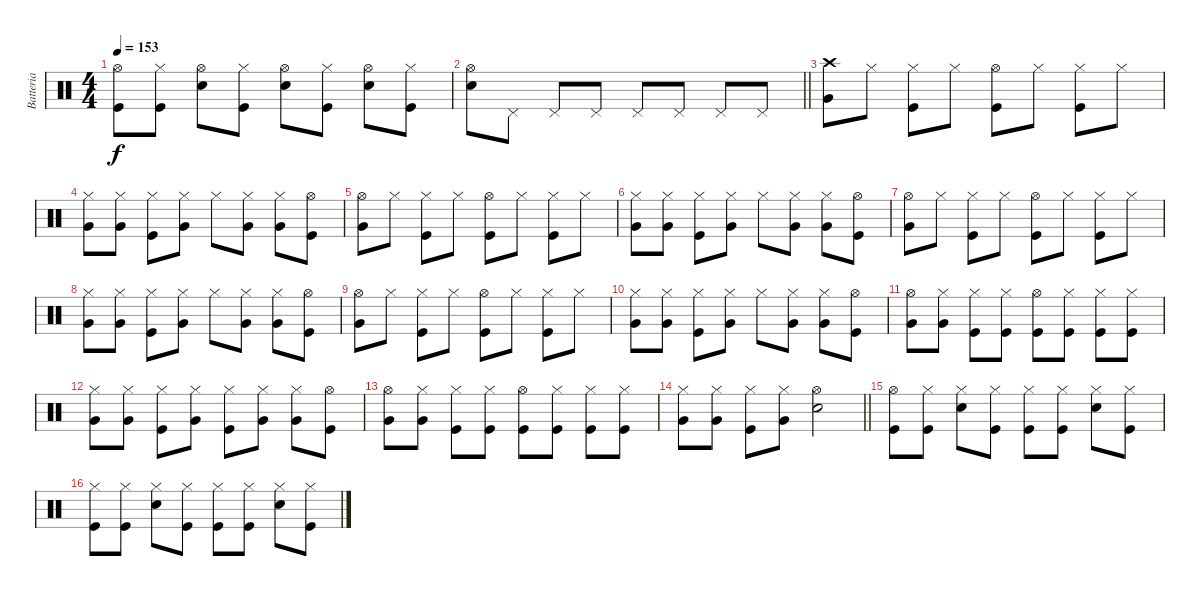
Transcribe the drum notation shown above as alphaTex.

\track ("Batteria" "Batteria") {instrument percussion}
\staff {score}
\articulation defaults
\ts (4 4)
\tempo 153
\clef neutral
\ks c
("Kick (hit)" "Hi-Hat (open)").8{dy f} ("Kick (hit)" "Hi-Hat (closed)").8 ("Snare (hit) 2" "Hi-Hat (open)").8 ("Kick (hit)" "Hi-Hat (closed)").8 ("Snare (hit) 2" "Hi-Hat (open)").8 ("Kick (hit)" "Hi-Hat (closed)").8 ("Snare (hit) 2" "Hi-Hat (open)").8 ("Kick (hit)" "Hi-Hat (closed)").8 |
\barLineRight lightlight
("Snare (hit) 2" "Hi-Hat (open)").8 "Pedal Hi-Hat (hit)".8 "Pedal Hi-Hat (hit)".8 "Pedal Hi-Hat (hit)".8 "Pedal Hi-Hat (hit)".8 "Pedal Hi-Hat (hit)".8 "Pedal Hi-Hat (hit)".8 "Pedal Hi-Hat (hit)".8 |
("Very Low Tom (hit)" "Crash high (hit)").8 "Hi-Hat (closed)".8 ("Kick (hit)" "Hi-Hat (closed)").8 "Hi-Hat (closed)".8 ("Kick (hit)" "Hi-Hat (open)").8 "Hi-Hat (closed)".8 ("Kick (hit)" "Hi-Hat (closed)").8 "Hi-Hat (closed)".8 |
("Very Low Tom (hit)" "Hi-Hat (closed)").8 ("Very Low Tom (hit)" "Hi-Hat (closed)").8 ("Kick (hit)" "Hi-Hat (closed)").8 ("Very Low Tom (hit)" "Hi-Hat (closed)").8 "Hi-Hat (closed)".8 ("Very Low Tom (hit)" "Hi-Hat (closed)").8 ("Very Low Tom (hit)" "Hi-Hat (closed)").8 ("Kick (hit)" "Hi-Hat (open)").8 |
("Very Low Tom (hit)" "Hi-Hat (open)").8 "Hi-Hat (closed)".8 ("Kick (hit)" "Hi-Hat (closed)").8 "Hi-Hat (closed)".8 ("Kick (hit)" "Hi-Hat (open)").8 "Hi-Hat (closed)".8 ("Kick (hit)" "Hi-Hat (closed)").8 "Hi-Hat (closed)".8 |
("Very Low Tom (hit)" "Hi-Hat (closed)").8 ("Very Low Tom (hit)" "Hi-Hat (closed)").8 ("Kick (hit)" "Hi-Hat (closed)").8 ("Very Low Tom (hit)" "Hi-Hat (closed)").8 "Hi-Hat (closed)".8 ("Very Low Tom (hit)" "Hi-Hat (closed)").8 ("Very Low Tom (hit)" "Hi-Hat (closed)").8 ("Kick (hit)" "Hi-Hat (open)").8 |
("Very Low Tom (hit)" "Hi-Hat (open)").8 "Hi-Hat (closed)".8 ("Kick (hit)" "Hi-Hat (closed)").8 "Hi-Hat (closed)".8 ("Kick (hit)" "Hi-Hat (open)").8 "Hi-Hat (closed)".8 ("Kick (hit)" "Hi-Hat (closed)").8 "Hi-Hat (closed)".8 |
("Very Low Tom (hit)" "Hi-Hat (closed)").8 ("Very Low Tom (hit)" "Hi-Hat (closed)").8 ("Kick (hit)" "Hi-Hat (closed)").8 ("Very Low Tom (hit)" "Hi-Hat (closed)").8 "Hi-Hat (closed)".8 ("Very Low Tom (hit)" "Hi-Hat (closed)").8 ("Very Low Tom (hit)" "Hi-Hat (closed)").8 ("Kick (hit)" "Hi-Hat (open)").8 |
("Very Low Tom (hit)" "Hi-Hat (open)").8 "Hi-Hat (closed)".8 ("Kick (hit)" "Hi-Hat (closed)").8 "Hi-Hat (closed)".8 ("Kick (hit)" "Hi-Hat (open)").8 "Hi-Hat (closed)".8 ("Kick (hit)" "Hi-Hat (closed)").8 "Hi-Hat (closed)".8 |
("Very Low Tom (hit)" "Hi-Hat (closed)").8 ("Very Low Tom (hit)" "Hi-Hat (closed)").8 ("Kick (hit)" "Hi-Hat (closed)").8 ("Very Low Tom (hit)" "Hi-Hat (closed)").8 "Hi-Hat (closed)".8 ("Very Low Tom (hit)" "Hi-Hat (closed)").8 ("Very Low Tom (hit)" "Hi-Hat (closed)").8 ("Kick (hit)" "Hi-Hat (open)").8 |
("Very Low Tom (hit)" "Hi-Hat (open)").8 ("Hi-Hat (closed)" "Very Low Tom (hit)").8 ("Kick (hit)" "Hi-Hat (closed)").8 ("Hi-Hat (closed)" "Kick (hit)").8 ("Kick (hit)" "Hi-Hat (open)").8 ("Hi-Hat (closed)" "Kick (hit)").8 ("Kick (hit)" "Hi-Hat (closed)").8 ("Hi-Hat (closed)" "Kick (hit)").8 |
("Very Low Tom (hit)" "Hi-Hat (closed)").8 ("Very Low Tom (hit)" "Hi-Hat (closed)").8 ("Kick (hit)" "Hi-Hat (closed)").8 ("Very Low Tom (hit)" "Hi-Hat (closed)").8 ("Hi-Hat (closed)" "Kick (hit)").8 ("Very Low Tom (hit)" "Hi-Hat (closed)").8 ("Very Low Tom (hit)" "Hi-Hat (closed)").8 ("Kick (hit)" "Hi-Hat (open)").8 |
("Very Low Tom (hit)" "Hi-Hat (open)").8 ("Hi-Hat (closed)" "Very Low Tom (hit)").8 ("Kick (hit)" "Hi-Hat (closed)").8 ("Hi-Hat (closed)" "Kick (hit)").8 ("Kick (hit)" "Hi-Hat (open)").8 ("Hi-Hat (closed)" "Kick (hit)").8 ("Kick (hit)" "Hi-Hat (closed)").8 ("Hi-Hat (closed)" "Kick (hit)").8 |
\barLineRight lightlight
("Very Low Tom (hit)" "Hi-Hat (closed)").8 ("Very Low Tom (hit)" "Hi-Hat (closed)").8 ("Kick (hit)" "Hi-Hat (closed)").8 ("Very Low Tom (hit)" "Hi-Hat (closed)").8 ("Hi-Hat (open)" "Snare (hit) 2").2 |
("Kick (hit)" "Hi-Hat (open)").8 ("Kick (hit)" "Hi-Hat (closed)").8 ("Snare (hit) 2" "Hi-Hat (closed)").8 ("Kick (hit)" "Hi-Hat (closed)").8 ("Kick (hit)" "Hi-Hat (closed)").8 ("Kick (hit)" "Hi-Hat (closed)").8 ("Snare (hit) 2" "Hi-Hat (closed)").8 ("Kick (hit)" "Hi-Hat (closed)").8 |
("Kick (hit)" "Hi-Hat (closed)").8 ("Kick (hit)" "Hi-Hat (closed)").8 ("Snare (hit) 2" "Hi-Hat (closed)").8 ("Kick (hit)" "Hi-Hat (closed)").8 ("Kick (hit)" "Hi-Hat (closed)").8 ("Kick (hit)" "Hi-Hat (closed)").8 ("Snare (hit) 2" "Hi-Hat (closed)").8 ("Kick (hit)" "Hi-Hat (closed)").8
